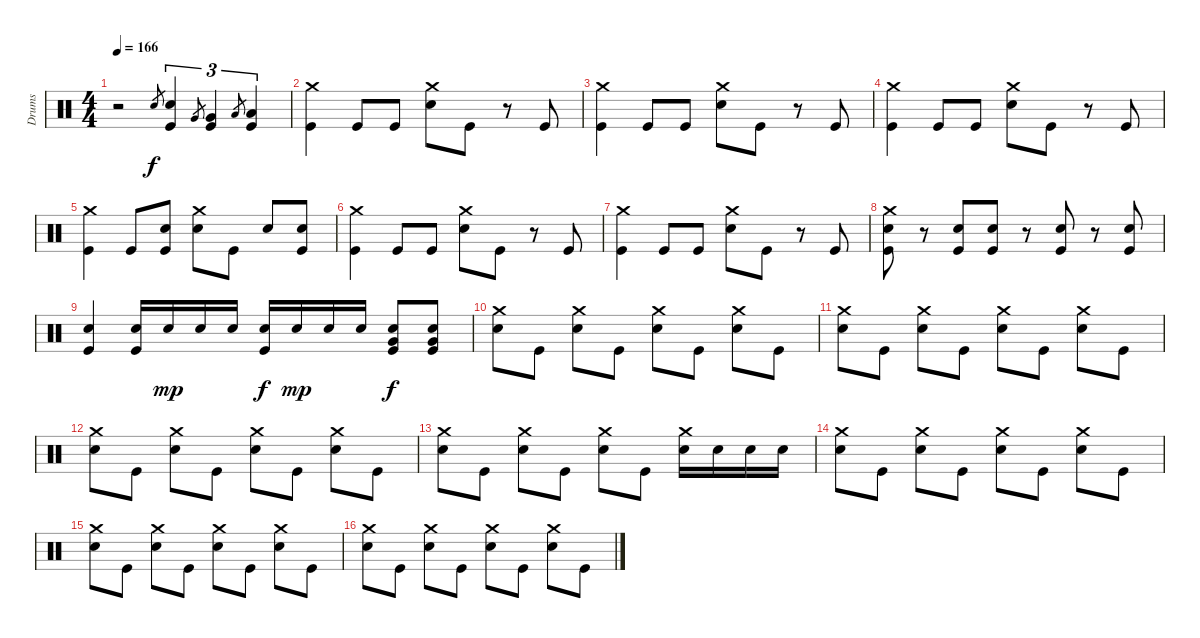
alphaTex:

\track ("Drums" "Drums") {instrument percussion}
\staff {score}
\articulation defaults
\ts (4 4)
\tempo 166
\clef neutral
\ks c
r.2{dy f} "Electric Snare (hit)".8{gr} ("Electric Snare (hit)" "Kick (hit)").4{tu (3 2)} "Very Low Tom (hit)".8{gr} ("Very Low Tom (hit)" "Kick (hit)").4{tu (3 2)} "Low Floor Tom (hit)".8{gr} ("Low Floor Tom (hit)" "Kick (hit)").4{tu (3 2)} |
("Crash medium (hit)" "Kick (hit)").4 "Kick (hit)".8 "Kick (hit)".8 ("Crash medium (hit)" "Electric Snare (hit)").8 "Kick (hit)".8 r.8 "Kick (hit)".8 |
("Crash medium (hit)" "Kick (hit)").4 "Kick (hit)".8 "Kick (hit)".8 ("Crash medium (hit)" "Electric Snare (hit)").8 "Kick (hit)".8 r.8 "Kick (hit)".8 |
("Crash medium (hit)" "Kick (hit)").4 "Kick (hit)".8 "Kick (hit)".8 ("Crash medium (hit)" "Electric Snare (hit)").8 "Kick (hit)".8 r.8 "Kick (hit)".8 |
("Crash medium (hit)" "Kick (hit)").4 "Kick (hit)".8 ("Electric Snare (hit)" "Kick (hit)").8 ("Crash medium (hit)" "Electric Snare (hit)").8 "Kick (hit)".8 "Electric Snare (hit)".8 ("Electric Snare (hit)" "Kick (hit)").8 |
("Crash medium (hit)" "Kick (hit)").4 "Kick (hit)".8 "Kick (hit)".8 ("Crash medium (hit)" "Electric Snare (hit)").8 "Kick (hit)".8 r.8 "Kick (hit)".8 |
("Crash medium (hit)" "Kick (hit)").4 "Kick (hit)".8 "Kick (hit)".8 ("Crash medium (hit)" "Electric Snare (hit)").8 "Kick (hit)".8 r.8 "Kick (hit)".8 |
("Crash medium (hit)" "Electric Snare (hit)" "Kick (hit)").8 r.8 ("Electric Snare (hit)" "Kick (hit)").8 ("Electric Snare (hit)" "Kick (hit)").8 r.8 ("Electric Snare (hit)" "Kick (hit)").8 r.8 ("Electric Snare (hit)" "Kick (hit)").8 |
("Electric Snare (hit)" "Kick (hit)").4 ("Electric Snare (hit)" "Kick (hit)").16 "Electric Snare (hit)".16{dy mp} "Electric Snare (hit)".16 "Electric Snare (hit)".16 ("Electric Snare (hit)" "Kick (hit)").16{dy f} "Electric Snare (hit)".16{dy mp} "Electric Snare (hit)".16 "Electric Snare (hit)".16 ("Very Low Tom (hit)" "Electric Snare (hit)" "Kick (hit)").8{dy f} ("Very Low Tom (hit)" "Electric Snare (hit)" "Kick (hit)").8 |
("Crash medium (hit)" "Electric Snare (hit)").8 "Kick (hit)".8 ("Crash medium (hit)" "Electric Snare (hit)").8 "Kick (hit)".8 ("Crash medium (hit)" "Electric Snare (hit)").8 "Kick (hit)".8 ("Crash medium (hit)" "Electric Snare (hit)").8 "Kick (hit)".8 |
("Crash medium (hit)" "Electric Snare (hit)").8 "Kick (hit)".8 ("Crash medium (hit)" "Electric Snare (hit)").8 "Kick (hit)".8 ("Crash medium (hit)" "Electric Snare (hit)").8 "Kick (hit)".8 ("Crash medium (hit)" "Electric Snare (hit)").8 "Kick (hit)".8 |
("Crash medium (hit)" "Electric Snare (hit)").8 "Kick (hit)".8 ("Crash medium (hit)" "Electric Snare (hit)").8 "Kick (hit)".8 ("Crash medium (hit)" "Electric Snare (hit)").8 "Kick (hit)".8 ("Crash medium (hit)" "Electric Snare (hit)").8 "Kick (hit)".8 |
("Crash medium (hit)" "Electric Snare (hit)").8 "Kick (hit)".8 ("Crash medium (hit)" "Electric Snare (hit)").8 "Kick (hit)".8 ("Crash medium (hit)" "Electric Snare (hit)").8 "Kick (hit)".8 ("Crash medium (hit)" "Electric Snare (hit)").16 "Electric Snare (hit)".16 "Electric Snare (hit)".16 "Electric Snare (hit)".16 |
("Crash medium (hit)" "Electric Snare (hit)").8 "Kick (hit)".8 ("Crash medium (hit)" "Electric Snare (hit)").8 "Kick (hit)".8 ("Crash medium (hit)" "Electric Snare (hit)").8 "Kick (hit)".8 ("Crash medium (hit)" "Electric Snare (hit)").8 "Kick (hit)".8 |
("Crash medium (hit)" "Electric Snare (hit)").8 "Kick (hit)".8 ("Crash medium (hit)" "Electric Snare (hit)").8 "Kick (hit)".8 ("Crash medium (hit)" "Electric Snare (hit)").8 "Kick (hit)".8 ("Crash medium (hit)" "Electric Snare (hit)").8 "Kick (hit)".8 |
("Crash medium (hit)" "Electric Snare (hit)").8 "Kick (hit)".8 ("Crash medium (hit)" "Electric Snare (hit)").8 "Kick (hit)".8 ("Crash medium (hit)" "Electric Snare (hit)").8 "Kick (hit)".8 ("Crash medium (hit)" "Electric Snare (hit)").8 "Kick (hit)".8
